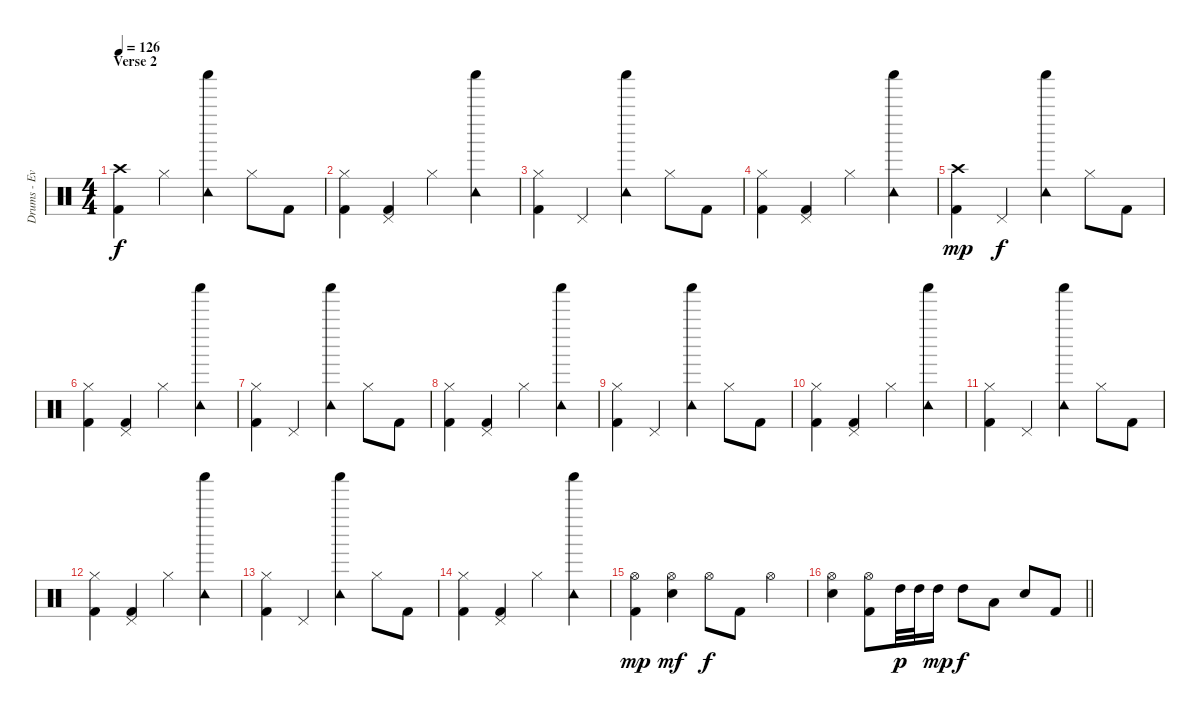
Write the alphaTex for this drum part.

\track ("Drums - Evans" "Drums - Ev") {instrument percussion}
\staff {score}
\articulation defaults
\ts (4 4)
\section ("" "Verse 2")
\tempo 126
\clef neutral
\ks c
("Crash high (hit)" "Kick (hit) 2").4{dy f} "Hi-Hat (closed)".4 ("Tambourine (hit)" "Shaker (hit)").4 "Hi-Hat (closed)".8 "Kick (hit) 2".8 |
("Hi-Hat (closed)" "Kick (hit) 2").4 ("Pedal Hi-Hat (hit)" "Kick (hit) 2").4 "Hi-Hat (closed)".4 ("Tambourine (hit)" "Shaker (hit)").4 |
("Hi-Hat (closed)" "Kick (hit) 2").4 "Pedal Hi-Hat (hit)".4 ("Tambourine (hit)" "Shaker (hit)").4 "Hi-Hat (closed)".8 "Kick (hit) 2".8 |
("Hi-Hat (closed)" "Kick (hit) 2").4 ("Pedal Hi-Hat (hit)" "Kick (hit) 2").4 "Hi-Hat (closed)".4 ("Tambourine (hit)" "Shaker (hit)").4 |
("Crash high (hit)" "Kick (hit) 2").4{dy mp} "Pedal Hi-Hat (hit)".4{dy f} ("Tambourine (hit)" "Shaker (hit)").4 "Hi-Hat (closed)".8 "Kick (hit) 2".8 |
("Hi-Hat (closed)" "Kick (hit) 2").4 ("Pedal Hi-Hat (hit)" "Kick (hit) 2").4 "Hi-Hat (closed)".4 ("Tambourine (hit)" "Shaker (hit)").4 |
("Hi-Hat (closed)" "Kick (hit) 2").4 "Pedal Hi-Hat (hit)".4 ("Tambourine (hit)" "Shaker (hit)").4 "Hi-Hat (closed)".8 "Kick (hit) 2".8 |
("Hi-Hat (closed)" "Kick (hit) 2").4 ("Pedal Hi-Hat (hit)" "Kick (hit) 2").4 "Hi-Hat (closed)".4 ("Tambourine (hit)" "Shaker (hit)").4 |
("Hi-Hat (closed)" "Kick (hit) 2").4 "Pedal Hi-Hat (hit)".4 ("Tambourine (hit)" "Shaker (hit)").4 "Hi-Hat (closed)".8 "Kick (hit) 2".8 |
("Hi-Hat (closed)" "Kick (hit) 2").4 ("Pedal Hi-Hat (hit)" "Kick (hit) 2").4 "Hi-Hat (closed)".4 ("Tambourine (hit)" "Shaker (hit)").4 |
("Hi-Hat (closed)" "Kick (hit) 2").4 "Pedal Hi-Hat (hit)".4 ("Tambourine (hit)" "Shaker (hit)").4 "Hi-Hat (closed)".8 "Kick (hit) 2".8 |
("Hi-Hat (closed)" "Kick (hit) 2").4 ("Pedal Hi-Hat (hit)" "Kick (hit) 2").4 "Hi-Hat (closed)".4 ("Tambourine (hit)" "Shaker (hit)").4 |
("Hi-Hat (closed)" "Kick (hit) 2").4 "Pedal Hi-Hat (hit)".4 ("Tambourine (hit)" "Shaker (hit)").4 "Hi-Hat (closed)".8 "Kick (hit) 2".8 |
("Hi-Hat (closed)" "Kick (hit) 2").4 ("Pedal Hi-Hat (hit)" "Kick (hit) 2").4 "Hi-Hat (closed)".4 ("Tambourine (hit)" "Shaker (hit)").4 |
("Hi-Hat (open)" "Kick (hit) 2").4{dy mp} ("Hi-Hat (open)" "Electric Snare (hit)").4{dy mf} "Hi-Hat (open)".8{dy f} "Kick (hit) 2".8 "Hi-Hat (open)".4 |
\barLineRight lightlight
("Hi-Hat (open)" "Electric Snare (hit)").4 ("Hi-Hat (open)" "Kick (hit) 2").8 "High Tom (hit)".32{dy p} "High Tom (hit)".32 "High Tom (hit)".16{dy mp} "High Tom (hit)".8{dy f} "Low Floor Tom (hit)".8 "Electric Snare (hit)".8 "Kick (hit) 2".8
